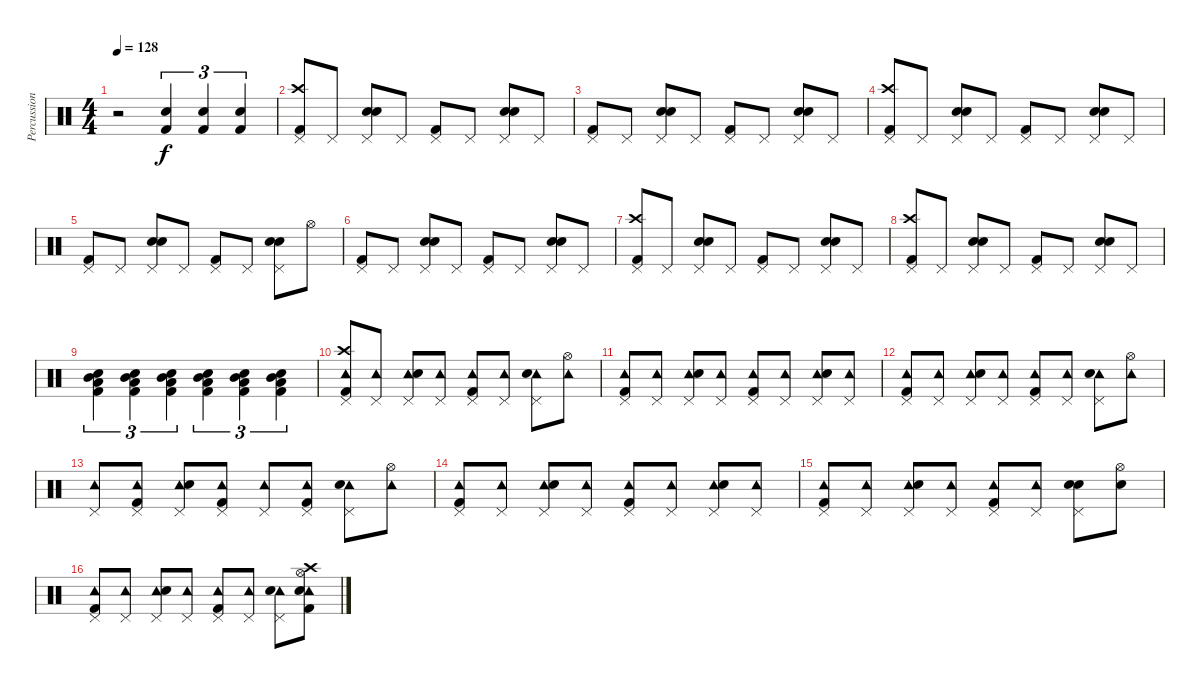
\track ("Percussions" "Percussion") {instrument percussion}
\staff {score}
\articulation defaults
\ts (4 4)
\tempo 128
\clef neutral
\ks c
r.2{dy f} ("Snare (hit) 2" "Kick (hit) 2").4{tu (3 2)} ("Snare (hit) 2" "Kick (hit) 2").4{tu (3 2)} ("Snare (hit) 2" "Kick (hit) 2").4{tu (3 2)} |
("Crash high (hit)" "Pedal Hi-Hat (hit)" "Kick (hit) 2").8 "Pedal Hi-Hat (hit)".8 ("Pedal Hi-Hat (hit)" "Snare (hit) 2" "Hand Clap (hit)").8 "Pedal Hi-Hat (hit)".8 ("Pedal Hi-Hat (hit)" "Kick (hit) 2").8 "Pedal Hi-Hat (hit)".8 ("Pedal Hi-Hat (hit)" "Snare (hit) 2" "Hand Clap (hit)").8 "Pedal Hi-Hat (hit)".8 |
("Pedal Hi-Hat (hit)" "Kick (hit) 2").8 "Pedal Hi-Hat (hit)".8 ("Pedal Hi-Hat (hit)" "Snare (hit) 2" "Hand Clap (hit)").8 "Pedal Hi-Hat (hit)".8 ("Pedal Hi-Hat (hit)" "Kick (hit) 2").8 "Pedal Hi-Hat (hit)".8 ("Pedal Hi-Hat (hit)" "Snare (hit) 2" "Hand Clap (hit)").8 "Pedal Hi-Hat (hit)".8 |
("Crash high (hit)" "Pedal Hi-Hat (hit)" "Kick (hit) 2").8 "Pedal Hi-Hat (hit)".8 ("Pedal Hi-Hat (hit)" "Snare (hit) 2" "Hand Clap (hit)").8 "Pedal Hi-Hat (hit)".8 ("Pedal Hi-Hat (hit)" "Kick (hit) 2").8 "Pedal Hi-Hat (hit)".8 ("Pedal Hi-Hat (hit)" "Snare (hit) 2" "Hand Clap (hit)").8 "Pedal Hi-Hat (hit)".8 |
("Pedal Hi-Hat (hit)" "Kick (hit) 2").8 "Pedal Hi-Hat (hit)".8 ("Pedal Hi-Hat (hit)" "Snare (hit) 2" "Hand Clap (hit)").8 "Pedal Hi-Hat (hit)".8 ("Pedal Hi-Hat (hit)" "Kick (hit) 2").8 "Pedal Hi-Hat (hit)".8 ("Pedal Hi-Hat (hit)" "Snare (hit) 2" "Hand Clap (hit)").8 "Hi-Hat (open)".8 |
("Pedal Hi-Hat (hit)" "Kick (hit) 2").8 "Pedal Hi-Hat (hit)".8 ("Pedal Hi-Hat (hit)" "Snare (hit) 2" "Hand Clap (hit)").8 "Pedal Hi-Hat (hit)".8 ("Pedal Hi-Hat (hit)" "Kick (hit) 2").8 "Pedal Hi-Hat (hit)".8 ("Pedal Hi-Hat (hit)" "Snare (hit) 2" "Hand Clap (hit)").8 "Pedal Hi-Hat (hit)".8 |
("Crash high (hit)" "Pedal Hi-Hat (hit)" "Kick (hit) 2").8 "Pedal Hi-Hat (hit)".8 ("Pedal Hi-Hat (hit)" "Snare (hit) 2" "Hand Clap (hit)").8 "Pedal Hi-Hat (hit)".8 ("Pedal Hi-Hat (hit)" "Kick (hit) 2").8 "Pedal Hi-Hat (hit)".8 ("Pedal Hi-Hat (hit)" "Snare (hit) 2" "Hand Clap (hit)").8 "Pedal Hi-Hat (hit)".8 |
("Crash high (hit)" "Pedal Hi-Hat (hit)" "Kick (hit) 2").8 "Pedal Hi-Hat (hit)".8 ("Pedal Hi-Hat (hit)" "Snare (hit) 2" "Hand Clap (hit)").8 "Pedal Hi-Hat (hit)".8 ("Pedal Hi-Hat (hit)" "Kick (hit) 2").8 "Pedal Hi-Hat (hit)".8 ("Pedal Hi-Hat (hit)" "Snare (hit) 2" "Hand Clap (hit)").8 "Pedal Hi-Hat (hit)".8 |
("Mid Tom (hit)" "Low Tom (hit)" "Snare (hit) 2" "Kick (hit) 2").4{tu (3 2)} ("Mid Tom (hit)" "Low Tom (hit)" "Snare (hit) 2" "Kick (hit) 2").4{tu (3 2)} ("Mid Tom (hit)" "Low Tom (hit)" "Snare (hit) 2" "Kick (hit) 2").4{tu (3 2)} ("Mid Tom (hit)" "Low Tom (hit)" "Snare (hit) 2" "Kick (hit) 2").4{tu (3 2)} ("Mid Tom (hit)" "Low Tom (hit)" "Snare (hit) 2" "Kick (hit) 2").4{tu (3 2)} ("Mid Tom (hit)" "Low Tom (hit)" "Snare (hit) 2" "Kick (hit) 2").4{tu (3 2)} |
("Tambourine (hit)" "Crash high (hit)" "Pedal Hi-Hat (hit)" "Kick (hit) 2").8 ("Tambourine (hit)" "Pedal Hi-Hat (hit)").8 ("Tambourine (hit)" "Pedal Hi-Hat (hit)" "Snare (hit) 2").8 ("Tambourine (hit)" "Pedal Hi-Hat (hit)").8 ("Tambourine (hit)" "Pedal Hi-Hat (hit)" "Kick (hit) 2").8 ("Tambourine (hit)" "Pedal Hi-Hat (hit)").8 ("Tambourine (hit)" "Pedal Hi-Hat (hit)" "Snare (hit) 2").8 ("Tambourine (hit)" "Hi-Hat (open)").8 |
("Tambourine (hit)" "Pedal Hi-Hat (hit)" "Kick (hit) 2").8 ("Tambourine (hit)" "Pedal Hi-Hat (hit)").8 ("Tambourine (hit)" "Pedal Hi-Hat (hit)" "Snare (hit) 2").8 ("Tambourine (hit)" "Pedal Hi-Hat (hit)").8 ("Tambourine (hit)" "Pedal Hi-Hat (hit)" "Kick (hit) 2").8 ("Tambourine (hit)" "Pedal Hi-Hat (hit)").8 ("Tambourine (hit)" "Pedal Hi-Hat (hit)" "Snare (hit) 2").8 ("Tambourine (hit)" "Pedal Hi-Hat (hit)").8 |
("Tambourine (hit)" "Pedal Hi-Hat (hit)" "Kick (hit) 2").8 ("Tambourine (hit)" "Pedal Hi-Hat (hit)").8 ("Tambourine (hit)" "Pedal Hi-Hat (hit)" "Snare (hit) 2").8 ("Tambourine (hit)" "Pedal Hi-Hat (hit)").8 ("Tambourine (hit)" "Pedal Hi-Hat (hit)" "Kick (hit) 2").8 ("Tambourine (hit)" "Pedal Hi-Hat (hit)").8 ("Tambourine (hit)" "Pedal Hi-Hat (hit)" "Snare (hit) 2").8 ("Tambourine (hit)" "Hi-Hat (open)").8 |
("Tambourine (hit)" "Pedal Hi-Hat (hit)").8 ("Tambourine (hit)" "Pedal Hi-Hat (hit)" "Kick (hit) 2").8 ("Tambourine (hit)" "Pedal Hi-Hat (hit)" "Snare (hit) 2").8 ("Tambourine (hit)" "Pedal Hi-Hat (hit)" "Kick (hit) 2").8 ("Tambourine (hit)" "Pedal Hi-Hat (hit)").8 ("Tambourine (hit)" "Pedal Hi-Hat (hit)" "Kick (hit) 2").8 ("Tambourine (hit)" "Pedal Hi-Hat (hit)" "Snare (hit) 2").8 ("Tambourine (hit)" "Hi-Hat (open)").8 |
("Tambourine (hit)" "Pedal Hi-Hat (hit)" "Kick (hit) 2").8 ("Tambourine (hit)" "Pedal Hi-Hat (hit)").8 ("Tambourine (hit)" "Pedal Hi-Hat (hit)" "Snare (hit) 2").8 ("Tambourine (hit)" "Pedal Hi-Hat (hit)").8 ("Tambourine (hit)" "Pedal Hi-Hat (hit)" "Kick (hit) 2").8 ("Tambourine (hit)" "Pedal Hi-Hat (hit)").8 ("Tambourine (hit)" "Pedal Hi-Hat (hit)" "Snare (hit) 2").8 ("Tambourine (hit)" "Pedal Hi-Hat (hit)").8 |
("Tambourine (hit)" "Pedal Hi-Hat (hit)" "Kick (hit) 2").8 ("Tambourine (hit)" "Pedal Hi-Hat (hit)").8 ("Tambourine (hit)" "Pedal Hi-Hat (hit)" "Snare (hit) 2").8 ("Tambourine (hit)" "Pedal Hi-Hat (hit)").8 ("Tambourine (hit)" "Pedal Hi-Hat (hit)" "Kick (hit) 2").8 ("Tambourine (hit)" "Pedal Hi-Hat (hit)").8 ("Snare (hit)" "Pedal Hi-Hat (hit)" "Snare (hit) 2").8 ("Snare (hit)" "Hi-Hat (open)").8 |
("Tambourine (hit)" "Pedal Hi-Hat (hit)" "Kick (hit) 2").8 ("Tambourine (hit)" "Pedal Hi-Hat (hit)").8 ("Tambourine (hit)" "Pedal Hi-Hat (hit)" "Snare (hit) 2").8 ("Tambourine (hit)" "Pedal Hi-Hat (hit)").8 ("Tambourine (hit)" "Pedal Hi-Hat (hit)" "Kick (hit) 2").8 ("Tambourine (hit)" "Pedal Hi-Hat (hit)").8 ("Tambourine (hit)" "Pedal Hi-Hat (hit)" "Snare (hit) 2").8 ("Tambourine (hit)" "Crash high (hit)" "Hi-Hat (open)" "Snare (hit) 2" "Kick (hit) 2").8
